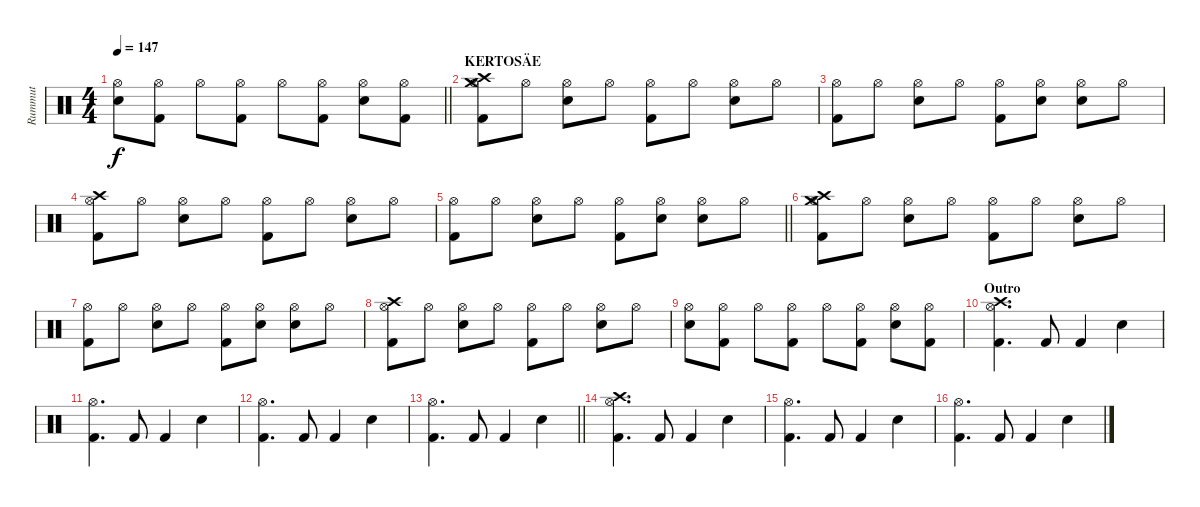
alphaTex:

\track ("Rummut" "Rummut") {instrument percussion}
\staff {score}
\articulation defaults
\ts (4 4)
\tempo 147
\clef neutral
\barLineRight lightlight
\ks c
("Hi-Hat (open)" "Snare (hit) 2").8{dy f} ("Hi-Hat (open)" "Kick (hit) 2").8 "Hi-Hat (open)".8 ("Hi-Hat (open)" "Kick (hit) 2").8 "Hi-Hat (open)".8 ("Hi-Hat (open)" "Kick (hit) 2").8 ("Hi-Hat (open)" "Snare (hit) 2").8 ("Hi-Hat (open)" "Kick (hit) 2").8 |
\section ("" "KERTOSÄE")
("Crash high (hit)" "Crash medium (hit)" "Hi-Hat (open)" "Kick (hit) 2").8 "Hi-Hat (open)".8 ("Hi-Hat (open)" "Snare (hit) 2").8 "Hi-Hat (open)".8 ("Hi-Hat (open)" "Kick (hit) 2").8 "Hi-Hat (open)".8 ("Hi-Hat (open)" "Snare (hit) 2").8 "Hi-Hat (open)".8 |
("Hi-Hat (open)" "Kick (hit) 2").8 "Hi-Hat (open)".8 ("Hi-Hat (open)" "Snare (hit) 2").8 "Hi-Hat (open)".8 ("Hi-Hat (open)" "Kick (hit) 2").8 ("Hi-Hat (open)" "Snare (hit) 2").8 ("Hi-Hat (open)" "Snare (hit) 2").8 "Hi-Hat (open)".8 |
("Crash high (hit)" "Hi-Hat (open)" "Kick (hit) 2").8 "Hi-Hat (open)".8 ("Hi-Hat (open)" "Snare (hit) 2").8 "Hi-Hat (open)".8 ("Hi-Hat (open)" "Kick (hit) 2").8 "Hi-Hat (open)".8 ("Hi-Hat (open)" "Snare (hit) 2").8 "Hi-Hat (open)".8 |
\barLineRight lightlight
("Hi-Hat (open)" "Kick (hit) 2").8 "Hi-Hat (open)".8 ("Hi-Hat (open)" "Snare (hit) 2").8 "Hi-Hat (open)".8 ("Hi-Hat (open)" "Kick (hit) 2").8 ("Hi-Hat (open)" "Snare (hit) 2").8 ("Hi-Hat (open)" "Snare (hit) 2").8 "Hi-Hat (open)".8 |
("Crash high (hit)" "Crash medium (hit)" "Hi-Hat (open)" "Kick (hit) 2").8 "Hi-Hat (open)".8 ("Hi-Hat (open)" "Snare (hit) 2").8 "Hi-Hat (open)".8 ("Hi-Hat (open)" "Kick (hit) 2").8 "Hi-Hat (open)".8 ("Hi-Hat (open)" "Snare (hit) 2").8 "Hi-Hat (open)".8 |
("Hi-Hat (open)" "Kick (hit) 2").8 "Hi-Hat (open)".8 ("Hi-Hat (open)" "Snare (hit) 2").8 "Hi-Hat (open)".8 ("Hi-Hat (open)" "Kick (hit) 2").8 ("Hi-Hat (open)" "Snare (hit) 2").8 ("Hi-Hat (open)" "Snare (hit) 2").8 "Hi-Hat (open)".8 |
("Crash high (hit)" "Hi-Hat (open)" "Kick (hit) 2").8 "Hi-Hat (open)".8 ("Hi-Hat (open)" "Snare (hit) 2").8 "Hi-Hat (open)".8 ("Hi-Hat (open)" "Kick (hit) 2").8 "Hi-Hat (open)".8 ("Hi-Hat (open)" "Snare (hit) 2").8 "Hi-Hat (open)".8 |
("Hi-Hat (open)" "Snare (hit) 2").8 ("Hi-Hat (open)" "Kick (hit) 2").8 "Hi-Hat (open)".8 ("Hi-Hat (open)" "Kick (hit) 2").8 "Hi-Hat (open)".8 ("Hi-Hat (open)" "Kick (hit) 2").8 ("Hi-Hat (open)" "Snare (hit) 2").8 ("Hi-Hat (open)" "Kick (hit) 2").8 |
\section ("" "Outro")
("Crash high (hit)" "Hi-Hat (open)" "Kick (hit) 2").4{d} "Kick (hit) 2".8 "Kick (hit) 2".4 "Snare (hit) 2".4 |
("Hi-Hat (open)" "Kick (hit) 2").4{d} "Kick (hit) 2".8 "Kick (hit) 2".4 "Snare (hit) 2".4 |
("Hi-Hat (open)" "Kick (hit) 2").4{d} "Kick (hit) 2".8 "Kick (hit) 2".4 "Snare (hit) 2".4 |
\barLineRight lightlight
("Hi-Hat (open)" "Kick (hit) 2").4{d} "Kick (hit) 2".8 "Kick (hit) 2".4 "Snare (hit) 2".4 |
("Crash high (hit)" "Hi-Hat (open)" "Kick (hit) 2").4{d} "Kick (hit) 2".8 "Kick (hit) 2".4 "Snare (hit) 2".4 |
("Hi-Hat (open)" "Kick (hit) 2").4{d} "Kick (hit) 2".8 "Kick (hit) 2".4 "Snare (hit) 2".4 |
("Hi-Hat (open)" "Kick (hit) 2").4{d} "Kick (hit) 2".8 "Kick (hit) 2".4 "Snare (hit) 2".4
